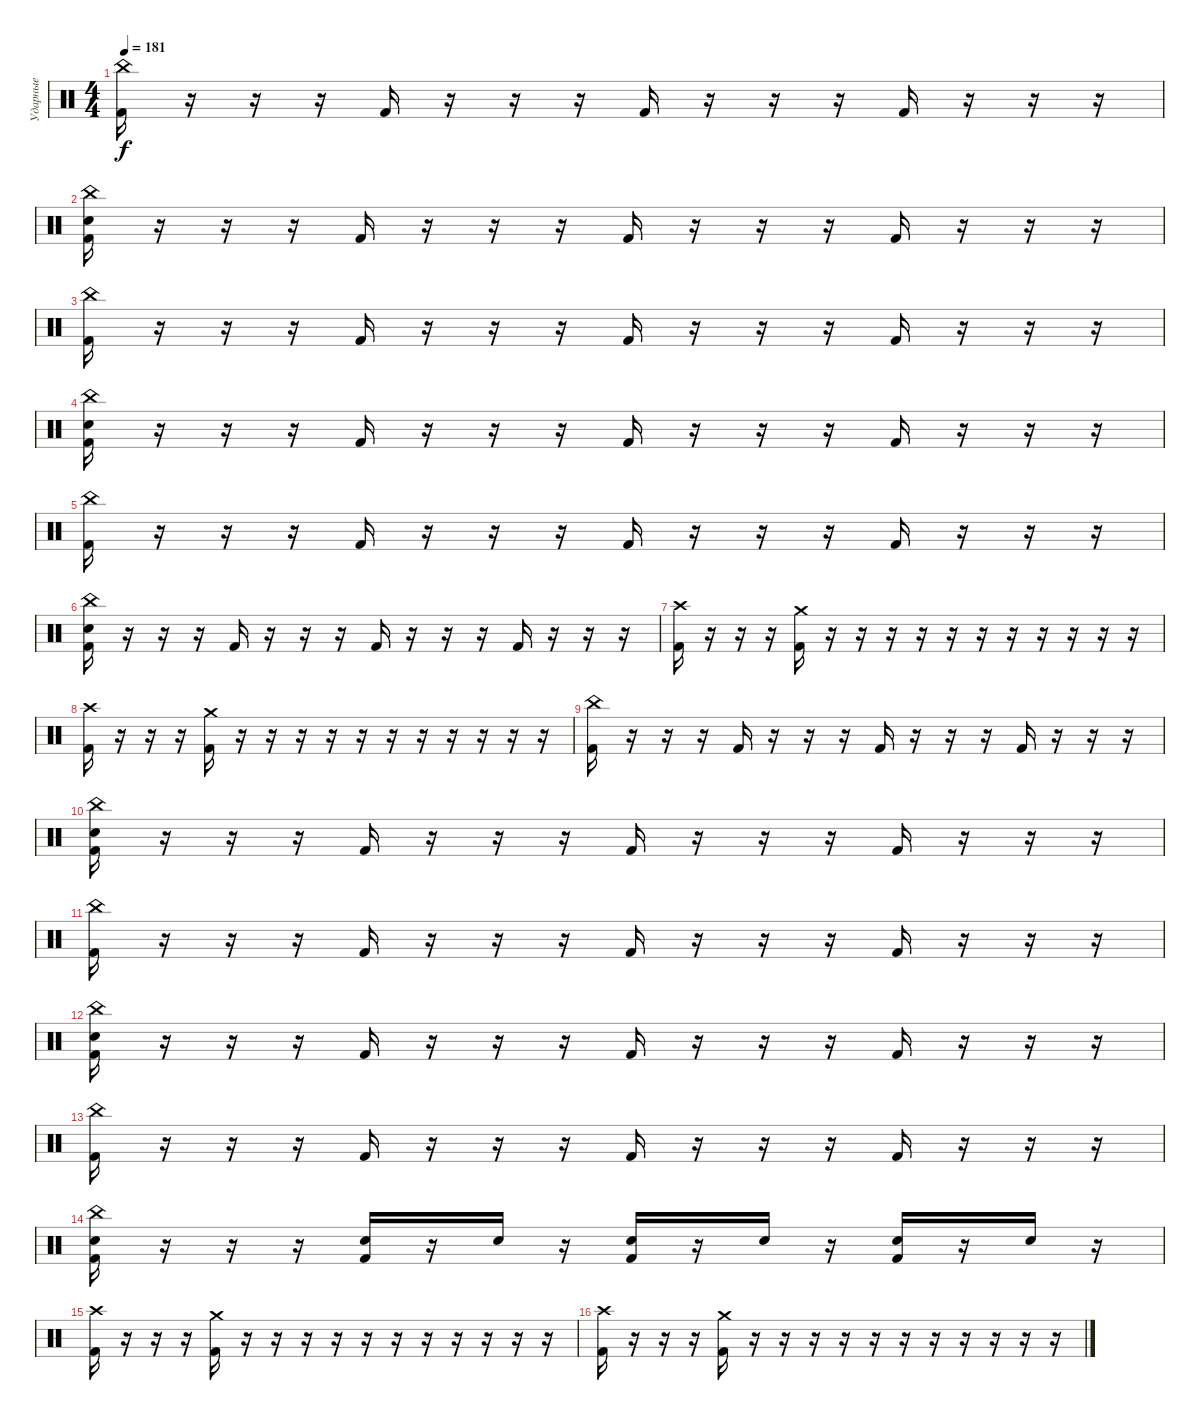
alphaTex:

\track ("Ударные" "Ударные") {instrument percussion}
\staff {score}
\articulation defaults
\ts (4 4)
\tempo 181
\clef neutral
\ks c
("China (hit)" "Kick (hit) 2").16{dy f} r.16 r.16 r.16 "Kick (hit) 2".16 r.16 r.16 r.16 "Kick (hit) 2".16 r.16 r.16 r.16 "Kick (hit) 2".16 r.16 r.16 r.16 |
("China (hit)" "Snare (hit) 2" "Kick (hit) 2").16 r.16 r.16 r.16 "Kick (hit) 2".16 r.16 r.16 r.16 "Kick (hit) 2".16 r.16 r.16 r.16 "Kick (hit) 2".16 r.16 r.16 r.16 |
("China (hit)" "Kick (hit) 2").16 r.16 r.16 r.16 "Kick (hit) 2".16 r.16 r.16 r.16 "Kick (hit) 2".16 r.16 r.16 r.16 "Kick (hit) 2".16 r.16 r.16 r.16 |
("China (hit)" "Snare (hit) 2" "Kick (hit) 2").16 r.16 r.16 r.16 "Kick (hit) 2".16 r.16 r.16 r.16 "Kick (hit) 2".16 r.16 r.16 r.16 "Kick (hit) 2".16 r.16 r.16 r.16 |
("China (hit)" "Kick (hit) 2").16 r.16 r.16 r.16 "Kick (hit) 2".16 r.16 r.16 r.16 "Kick (hit) 2".16 r.16 r.16 r.16 "Kick (hit) 2".16 r.16 r.16 r.16 |
("China (hit)" "Snare (hit) 2" "Kick (hit) 2").16 r.16 r.16 r.16 "Kick (hit) 2".16 r.16 r.16 r.16 "Kick (hit) 2".16 r.16 r.16 r.16 "Kick (hit) 2".16 r.16 r.16 r.16 |
("Kick (hit) 2" "Crash high (hit)").16 r.16 r.16 r.16 ("Kick (hit) 2" "Crash medium (hit)").16 r.16 r.16 r.16 r.16 r.16 r.16 r.16 r.16 r.16 r.16 r.16 |
("Crash high (hit)" "Kick (hit) 2").16 r.16 r.16 r.16 ("Crash medium (hit)" "Kick (hit) 2").16 r.16 r.16 r.16 r.16 r.16 r.16 r.16 r.16 r.16 r.16 r.16 |
("China (hit)" "Kick (hit) 2").16 r.16 r.16 r.16 "Kick (hit) 2".16 r.16 r.16 r.16 "Kick (hit) 2".16 r.16 r.16 r.16 "Kick (hit) 2".16 r.16 r.16 r.16 |
("China (hit)" "Snare (hit) 2" "Kick (hit) 2").16 r.16 r.16 r.16 "Kick (hit) 2".16 r.16 r.16 r.16 "Kick (hit) 2".16 r.16 r.16 r.16 "Kick (hit) 2".16 r.16 r.16 r.16 |
("China (hit)" "Kick (hit) 2").16 r.16 r.16 r.16 "Kick (hit) 2".16 r.16 r.16 r.16 "Kick (hit) 2".16 r.16 r.16 r.16 "Kick (hit) 2".16 r.16 r.16 r.16 |
("China (hit)" "Snare (hit) 2" "Kick (hit) 2").16 r.16 r.16 r.16 "Kick (hit) 2".16 r.16 r.16 r.16 "Kick (hit) 2".16 r.16 r.16 r.16 "Kick (hit) 2".16 r.16 r.16 r.16 |
("China (hit)" "Kick (hit) 2").16 r.16 r.16 r.16 "Kick (hit) 2".16 r.16 r.16 r.16 "Kick (hit) 2".16 r.16 r.16 r.16 "Kick (hit) 2".16 r.16 r.16 r.16 |
("China (hit)" "Snare (hit) 2" "Kick (hit) 2").16 r.16 r.16 r.16 ("Snare (hit) 2" "Kick (hit) 2").16 r.16 "Snare (hit) 2".16 r.16 ("Snare (hit) 2" "Kick (hit) 2").16 r.16 "Snare (hit) 2".16 r.16 ("Snare (hit) 2" "Kick (hit) 2").16 r.16 "Snare (hit) 2".16 r.16 |
("Kick (hit) 2" "Crash high (hit)").16 r.16 r.16 r.16 ("Kick (hit) 2" "Crash medium (hit)").16 r.16 r.16 r.16 r.16 r.16 r.16 r.16 r.16 r.16 r.16 r.16 |
("Crash high (hit)" "Kick (hit) 2").16 r.16 r.16 r.16 ("Crash medium (hit)" "Kick (hit) 2").16 r.16 r.16 r.16 r.16 r.16 r.16 r.16 r.16 r.16 r.16 r.16
